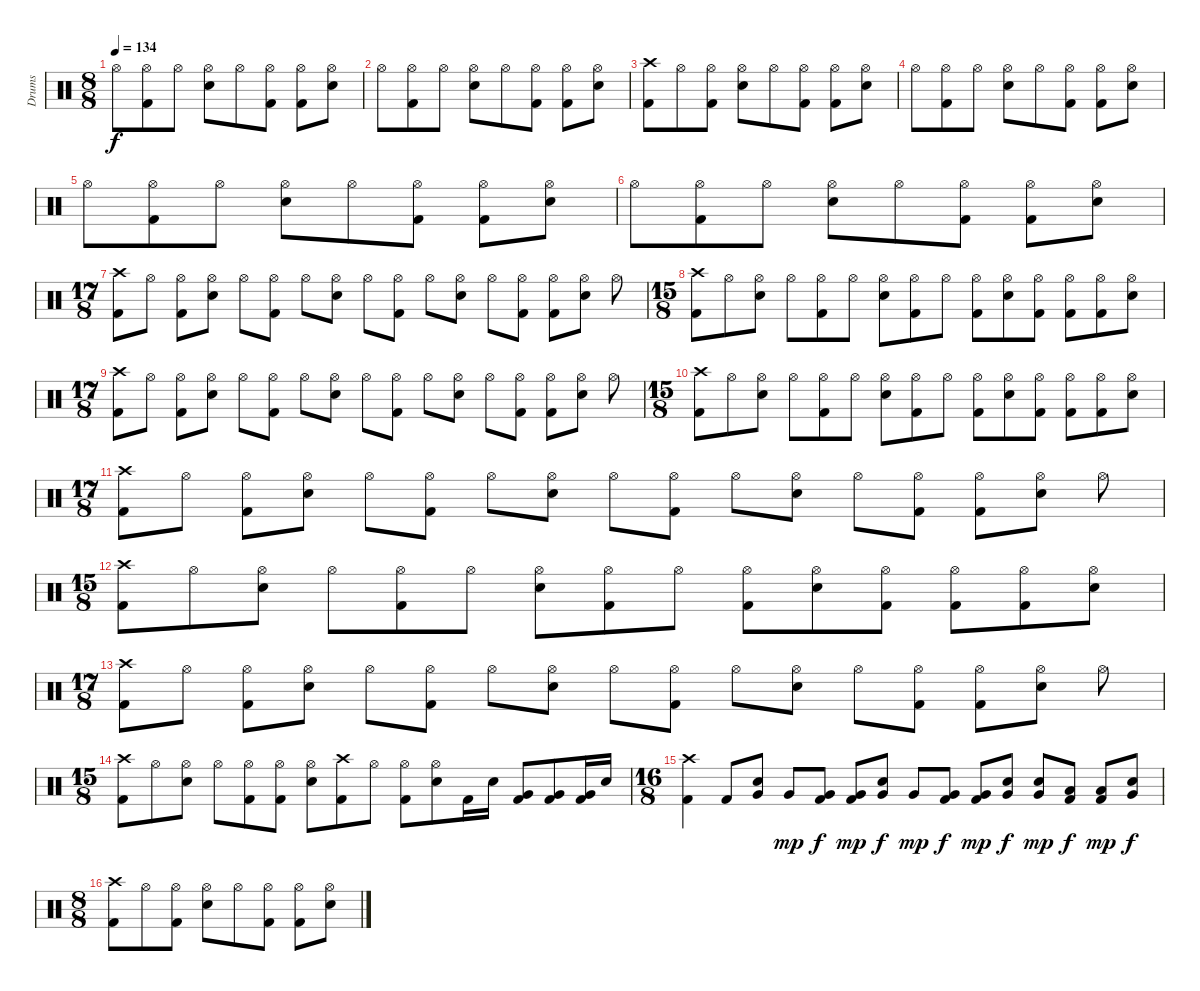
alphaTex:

\track ("Drums" "Drums") {instrument percussion}
\staff {score}
\articulation defaults
\ts (8 8)
\tempo 134
\clef neutral
\ks c "Hi-Hat (open)".8{dy f}
("Hi-Hat (open)" "Kick (hit) 2").8 "Hi-Hat (open)".8 ("Hi-Hat (open)" "Snare (hit) 2").8 "Hi-Hat (open)".8 ("Hi-Hat (open)" "Kick (hit) 2").8 ("Hi-Hat (open)" "Kick (hit) 2").8 ("Hi-Hat (open)" "Snare (hit) 2").8 |
"Hi-Hat (open)".8 ("Hi-Hat (open)" "Kick (hit) 2").8 "Hi-Hat (open)".8 ("Hi-Hat (open)" "Snare (hit) 2").8 "Hi-Hat (open)".8 ("Hi-Hat (open)" "Kick (hit) 2").8 ("Hi-Hat (open)" "Kick (hit) 2").8 ("Hi-Hat (open)" "Snare (hit) 2").8 |
("Crash high (hit)" "Kick (hit) 2").8 "Hi-Hat (open)".8 ("Hi-Hat (open)" "Kick (hit) 2").8 ("Hi-Hat (open)" "Snare (hit) 2").8 "Hi-Hat (open)".8 ("Hi-Hat (open)" "Kick (hit) 2").8 ("Hi-Hat (open)" "Kick (hit) 2").8 ("Hi-Hat (open)" "Snare (hit) 2").8 |
"Hi-Hat (open)".8 ("Hi-Hat (open)" "Kick (hit) 2").8 "Hi-Hat (open)".8 ("Hi-Hat (open)" "Snare (hit) 2").8 "Hi-Hat (open)".8 ("Hi-Hat (open)" "Kick (hit) 2").8 ("Hi-Hat (open)" "Kick (hit) 2").8 ("Hi-Hat (open)" "Snare (hit) 2").8 |
"Hi-Hat (open)".8 ("Hi-Hat (open)" "Kick (hit) 2").8 "Hi-Hat (open)".8 ("Hi-Hat (open)" "Snare (hit) 2").8 "Hi-Hat (open)".8 ("Hi-Hat (open)" "Kick (hit) 2").8 ("Hi-Hat (open)" "Kick (hit) 2").8 ("Hi-Hat (open)" "Snare (hit) 2").8 |
"Hi-Hat (open)".8 ("Hi-Hat (open)" "Kick (hit) 2").8 "Hi-Hat (open)".8 ("Hi-Hat (open)" "Snare (hit) 2").8 "Hi-Hat (open)".8 ("Hi-Hat (open)" "Kick (hit) 2").8 ("Hi-Hat (open)" "Kick (hit) 2").8 ("Hi-Hat (open)" "Snare (hit) 2").8 |
\ts (17 8)
("Crash high (hit)" "Kick (hit) 2").8 "Hi-Hat (open)".8 ("Hi-Hat (open)" "Kick (hit) 2").8 ("Hi-Hat (open)" "Snare (hit) 2").8 "Hi-Hat (open)".8 ("Hi-Hat (open)" "Kick (hit) 2").8 "Hi-Hat (open)".8 ("Hi-Hat (open)" "Snare (hit) 2").8 "Hi-Hat (open)".8 ("Hi-Hat (open)" "Kick (hit) 2").8 "Hi-Hat (open)".8 ("Hi-Hat (open)" "Snare (hit) 2").8 "Hi-Hat (open)".8 ("Hi-Hat (open)" "Kick (hit) 2").8 ("Hi-Hat (open)" "Kick (hit) 2").8 ("Hi-Hat (open)" "Snare (hit) 2").8 "Hi-Hat (open)".8 |
\ts (15 8)
("Crash high (hit)" "Kick (hit) 2").8 "Hi-Hat (open)".8 ("Hi-Hat (open)" "Snare (hit) 2").8 "Hi-Hat (open)".8 ("Hi-Hat (open)" "Kick (hit) 2").8 "Hi-Hat (open)".8 ("Hi-Hat (open)" "Snare (hit) 2").8 ("Hi-Hat (open)" "Kick (hit) 2").8 "Hi-Hat (open)".8 ("Hi-Hat (open)" "Kick (hit) 2").8 ("Hi-Hat (open)" "Snare (hit) 2").8 ("Hi-Hat (open)" "Kick (hit) 2").8 ("Hi-Hat (open)" "Kick (hit) 2").8 ("Hi-Hat (open)" "Kick (hit) 2").8 ("Hi-Hat (open)" "Snare (hit) 2").8 |
\ts (17 8)
("Crash high (hit)" "Kick (hit) 2").8 "Hi-Hat (open)".8 ("Hi-Hat (open)" "Kick (hit) 2").8 ("Hi-Hat (open)" "Snare (hit) 2").8 "Hi-Hat (open)".8 ("Hi-Hat (open)" "Kick (hit) 2").8 "Hi-Hat (open)".8 ("Hi-Hat (open)" "Snare (hit) 2").8 "Hi-Hat (open)".8 ("Hi-Hat (open)" "Kick (hit) 2").8 "Hi-Hat (open)".8 ("Hi-Hat (open)" "Snare (hit) 2").8 "Hi-Hat (open)".8 ("Hi-Hat (open)" "Kick (hit) 2").8 ("Hi-Hat (open)" "Kick (hit) 2").8 ("Hi-Hat (open)" "Snare (hit) 2").8 "Hi-Hat (open)".8 |
\ts (15 8)
("Crash high (hit)" "Kick (hit) 2").8 "Hi-Hat (open)".8 ("Hi-Hat (open)" "Snare (hit) 2").8 "Hi-Hat (open)".8 ("Hi-Hat (open)" "Kick (hit) 2").8 "Hi-Hat (open)".8 ("Hi-Hat (open)" "Snare (hit) 2").8 ("Hi-Hat (open)" "Kick (hit) 2").8 "Hi-Hat (open)".8 ("Hi-Hat (open)" "Kick (hit) 2").8 ("Hi-Hat (open)" "Snare (hit) 2").8 ("Hi-Hat (open)" "Kick (hit) 2").8 ("Hi-Hat (open)" "Kick (hit) 2").8 ("Hi-Hat (open)" "Kick (hit) 2").8 ("Hi-Hat (open)" "Snare (hit) 2").8 |
\ts (17 8)
("Crash high (hit)" "Kick (hit) 2").8 "Hi-Hat (open)".8 ("Hi-Hat (open)" "Kick (hit) 2").8 ("Hi-Hat (open)" "Snare (hit) 2").8 "Hi-Hat (open)".8 ("Hi-Hat (open)" "Kick (hit) 2").8 "Hi-Hat (open)".8 ("Hi-Hat (open)" "Snare (hit) 2").8 "Hi-Hat (open)".8 ("Hi-Hat (open)" "Kick (hit) 2").8 "Hi-Hat (open)".8 ("Hi-Hat (open)" "Snare (hit) 2").8 "Hi-Hat (open)".8 ("Hi-Hat (open)" "Kick (hit) 2").8 ("Hi-Hat (open)" "Kick (hit) 2").8 ("Hi-Hat (open)" "Snare (hit) 2").8 "Hi-Hat (open)".8 |
\ts (15 8)
("Crash high (hit)" "Kick (hit) 2").8 "Hi-Hat (open)".8 ("Hi-Hat (open)" "Snare (hit) 2").8 "Hi-Hat (open)".8 ("Hi-Hat (open)" "Kick (hit) 2").8 "Hi-Hat (open)".8 ("Hi-Hat (open)" "Snare (hit) 2").8 ("Hi-Hat (open)" "Kick (hit) 2").8 "Hi-Hat (open)".8 ("Hi-Hat (open)" "Kick (hit) 2").8 ("Hi-Hat (open)" "Snare (hit) 2").8 ("Hi-Hat (open)" "Kick (hit) 2").8 ("Hi-Hat (open)" "Kick (hit) 2").8 ("Hi-Hat (open)" "Kick (hit) 2").8 ("Hi-Hat (open)" "Snare (hit) 2").8 |
\ts (17 8)
("Crash high (hit)" "Kick (hit) 2").8 "Hi-Hat (open)".8 ("Hi-Hat (open)" "Kick (hit) 2").8 ("Hi-Hat (open)" "Snare (hit) 2").8 "Hi-Hat (open)".8 ("Hi-Hat (open)" "Kick (hit) 2").8 "Hi-Hat (open)".8 ("Hi-Hat (open)" "Snare (hit) 2").8 "Hi-Hat (open)".8 ("Hi-Hat (open)" "Kick (hit) 2").8 "Hi-Hat (open)".8 ("Hi-Hat (open)" "Snare (hit) 2").8 "Hi-Hat (open)".8 ("Hi-Hat (open)" "Kick (hit) 2").8 ("Hi-Hat (open)" "Kick (hit) 2").8 ("Hi-Hat (open)" "Snare (hit) 2").8 "Hi-Hat (open)".8 |
\ts (15 8)
("Crash high (hit)" "Kick (hit) 2").8 "Hi-Hat (open)".8 ("Hi-Hat (open)" "Snare (hit) 2").8 "Hi-Hat (open)".8 ("Hi-Hat (open)" "Kick (hit) 2").8 ("Hi-Hat (open)" "Kick (hit) 2").8 ("Hi-Hat (open)" "Snare (hit) 2").8 ("Crash high (hit)" "Kick (hit) 2").8 "Hi-Hat (open)".8 ("Hi-Hat (open)" "Kick (hit) 2").8 ("Hi-Hat (open)" "Snare (hit) 2").8 "Kick (hit) 2".16 "Snare (hit) 2".16 ("Very Low Tom (hit)" "Kick (hit) 2").8 ("Very Low Tom (hit)" "Kick (hit) 2").8 ("Very Low Tom (hit)" "Kick (hit) 2").16 "Snare (hit) 2".16 |
\ts (16 8)
("Crash high (hit)" "Kick (hit) 2").4 "Kick (hit) 2".8 ("Very Low Tom (hit)" "Snare (hit) 2").8 "Very Low Tom (hit)".8{dy mp} ("Very Low Tom (hit)" "Kick (hit) 2").8{dy f} ("Very Low Tom (hit)" "Kick (hit) 2").8{dy mp} ("Very Low Tom (hit)" "Snare (hit) 2").8{dy f} "Very Low Tom (hit)".8{dy mp} ("Very Low Tom (hit)" "Kick (hit) 2").8{dy f} ("Very Low Tom (hit)" "Kick (hit) 2").8{dy mp} ("Very Low Tom (hit)" "Snare (hit) 2").8{dy f} ("Very Low Tom (hit)" "Snare (hit) 2").8{dy mp} ("Low Tom (hit)" "Kick (hit) 2").8{dy f} ("Low Tom (hit)" "Kick (hit) 2").8{dy mp} ("Very Low Tom (hit)" "Snare (hit) 2").8{dy f} |
\ts (8 8)
("Crash high (hit)" "Kick (hit) 2").8 "Hi-Hat (open)".8 ("Hi-Hat (open)" "Kick (hit) 2").8 ("Hi-Hat (open)" "Snare (hit) 2").8 "Hi-Hat (open)".8 ("Hi-Hat (open)" "Kick (hit) 2").8 ("Hi-Hat (open)" "Kick (hit) 2").8 ("Hi-Hat (open)" "Snare (hit) 2").8
